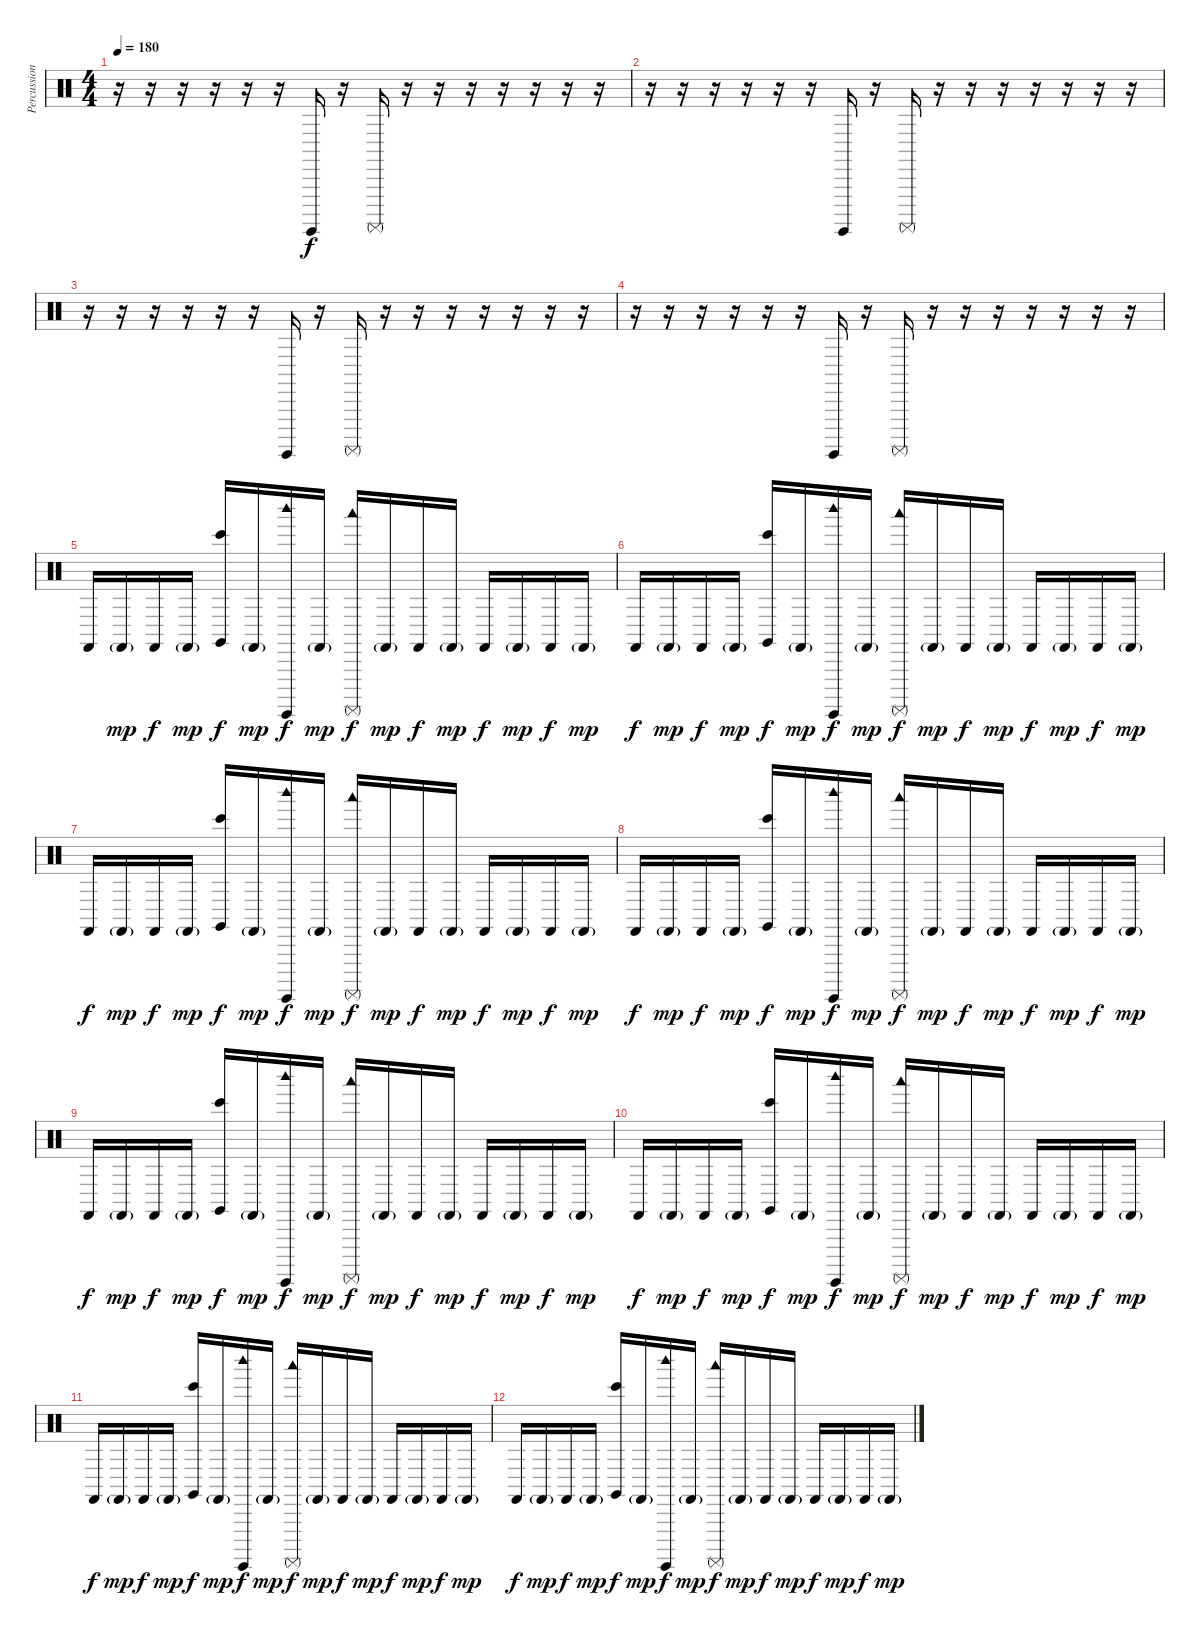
\track ("Percussions" "Percussion") {instrument percussion}
\staff {score}
\articulation defaults
\ts (4 4)
\tempo 180
\clef neutral
\ks c
r.16{dy f} r.16 r.16 r.16 r.16 r.16 "Surdo (hit)".16 r.16 "Surdo (mute)".16 r.16 r.16 r.16 r.16 r.16 r.16 r.16 |
r.16 r.16 r.16 r.16 r.16 r.16 "Surdo (hit)".16 r.16 "Surdo (mute)".16 r.16 r.16 r.16 r.16 r.16 r.16 r.16 |
r.16 r.16 r.16 r.16 r.16 r.16 "Surdo (hit)".16 r.16 "Surdo (mute)".16 r.16 r.16 r.16 r.16 r.16 r.16 r.16 |
r.16 r.16 r.16 r.16 r.16 r.16 "Surdo (hit)".16 r.16 "Surdo (mute)".16 r.16 r.16 r.16 r.16 r.16 r.16 r.16 |
"Castanets (hit)".16 "Castanets (hit)"{g}.16{dy mp} "Castanets (hit)".16{dy f} "Castanets (hit)"{g}.16{dy mp} ("Bongo High (hit)" "Claves (hit)").16{dy f} "Castanets (hit)"{g}.16{dy mp} ("Woodblock high (hit)" "Surdo (hit)").16{dy f} "Castanets (hit)"{g}.16{dy mp} ("Woodblock low (hit)" "Surdo (mute)").16{dy f} "Castanets (hit)"{g}.16{dy mp} "Castanets (hit)".16{dy f} "Castanets (hit)"{g}.16{dy mp} "Castanets (hit)".16{dy f} "Castanets (hit)"{g}.16{dy mp} "Castanets (hit)".16{dy f} "Castanets (hit)"{g}.16{dy mp} |
"Castanets (hit)".16{dy f} "Castanets (hit)"{g}.16{dy mp} "Castanets (hit)".16{dy f} "Castanets (hit)"{g}.16{dy mp} ("Bongo High (hit)" "Claves (hit)").16{dy f} "Castanets (hit)"{g}.16{dy mp} ("Woodblock high (hit)" "Surdo (hit)").16{dy f} "Castanets (hit)"{g}.16{dy mp} ("Woodblock low (hit)" "Surdo (mute)").16{dy f} "Castanets (hit)"{g}.16{dy mp} "Castanets (hit)".16{dy f} "Castanets (hit)"{g}.16{dy mp} "Castanets (hit)".16{dy f} "Castanets (hit)"{g}.16{dy mp} "Castanets (hit)".16{dy f} "Castanets (hit)"{g}.16{dy mp} |
"Castanets (hit)".16{dy f} "Castanets (hit)"{g}.16{dy mp} "Castanets (hit)".16{dy f} "Castanets (hit)"{g}.16{dy mp} ("Bongo High (hit)" "Claves (hit)").16{dy f} "Castanets (hit)"{g}.16{dy mp} ("Woodblock high (hit)" "Surdo (hit)").16{dy f} "Castanets (hit)"{g}.16{dy mp} ("Woodblock low (hit)" "Surdo (mute)").16{dy f} "Castanets (hit)"{g}.16{dy mp} "Castanets (hit)".16{dy f} "Castanets (hit)"{g}.16{dy mp} "Castanets (hit)".16{dy f} "Castanets (hit)"{g}.16{dy mp} "Castanets (hit)".16{dy f} "Castanets (hit)"{g}.16{dy mp} |
"Castanets (hit)".16{dy f} "Castanets (hit)"{g}.16{dy mp} "Castanets (hit)".16{dy f} "Castanets (hit)"{g}.16{dy mp} ("Bongo High (hit)" "Claves (hit)").16{dy f} "Castanets (hit)"{g}.16{dy mp} ("Woodblock high (hit)" "Surdo (hit)").16{dy f} "Castanets (hit)"{g}.16{dy mp} ("Woodblock low (hit)" "Surdo (mute)").16{dy f} "Castanets (hit)"{g}.16{dy mp} "Castanets (hit)".16{dy f} "Castanets (hit)"{g}.16{dy mp} "Castanets (hit)".16{dy f} "Castanets (hit)"{g}.16{dy mp} "Castanets (hit)".16{dy f} "Castanets (hit)"{g}.16{dy mp} |
"Castanets (hit)".16{dy f} "Castanets (hit)"{g}.16{dy mp} "Castanets (hit)".16{dy f} "Castanets (hit)"{g}.16{dy mp} ("Bongo High (hit)" "Claves (hit)").16{dy f} "Castanets (hit)"{g}.16{dy mp} ("Woodblock high (hit)" "Surdo (hit)").16{dy f} "Castanets (hit)"{g}.16{dy mp} ("Woodblock low (hit)" "Surdo (mute)").16{dy f} "Castanets (hit)"{g}.16{dy mp} "Castanets (hit)".16{dy f} "Castanets (hit)"{g}.16{dy mp} "Castanets (hit)".16{dy f} "Castanets (hit)"{g}.16{dy mp} "Castanets (hit)".16{dy f} "Castanets (hit)"{g}.16{dy mp} |
"Castanets (hit)".16{dy f} "Castanets (hit)"{g}.16{dy mp} "Castanets (hit)".16{dy f} "Castanets (hit)"{g}.16{dy mp} ("Bongo High (hit)" "Claves (hit)").16{dy f} "Castanets (hit)"{g}.16{dy mp} ("Woodblock high (hit)" "Surdo (hit)").16{dy f} "Castanets (hit)"{g}.16{dy mp} ("Woodblock low (hit)" "Surdo (mute)").16{dy f} "Castanets (hit)"{g}.16{dy mp} "Castanets (hit)".16{dy f} "Castanets (hit)"{g}.16{dy mp} "Castanets (hit)".16{dy f} "Castanets (hit)"{g}.16{dy mp} "Castanets (hit)".16{dy f} "Castanets (hit)"{g}.16{dy mp} |
"Castanets (hit)".16{dy f} "Castanets (hit)"{g}.16{dy mp} "Castanets (hit)".16{dy f} "Castanets (hit)"{g}.16{dy mp} ("Bongo High (hit)" "Claves (hit)").16{dy f} "Castanets (hit)"{g}.16{dy mp} ("Woodblock high (hit)" "Surdo (hit)").16{dy f} "Castanets (hit)"{g}.16{dy mp} ("Woodblock low (hit)" "Surdo (mute)").16{dy f} "Castanets (hit)"{g}.16{dy mp} "Castanets (hit)".16{dy f} "Castanets (hit)"{g}.16{dy mp} "Castanets (hit)".16{dy f} "Castanets (hit)"{g}.16{dy mp} "Castanets (hit)".16{dy f} "Castanets (hit)"{g}.16{dy mp} |
"Castanets (hit)".16{dy f} "Castanets (hit)"{g}.16{dy mp} "Castanets (hit)".16{dy f} "Castanets (hit)"{g}.16{dy mp} ("Bongo High (hit)" "Claves (hit)").16{dy f} "Castanets (hit)"{g}.16{dy mp} ("Woodblock high (hit)" "Surdo (hit)").16{dy f} "Castanets (hit)"{g}.16{dy mp} ("Woodblock low (hit)" "Surdo (mute)").16{dy f} "Castanets (hit)"{g}.16{dy mp} "Castanets (hit)".16{dy f} "Castanets (hit)"{g}.16{dy mp} "Castanets (hit)".16{dy f} "Castanets (hit)"{g}.16{dy mp} "Castanets (hit)".16{dy f} "Castanets (hit)"{g}.16{dy mp}
